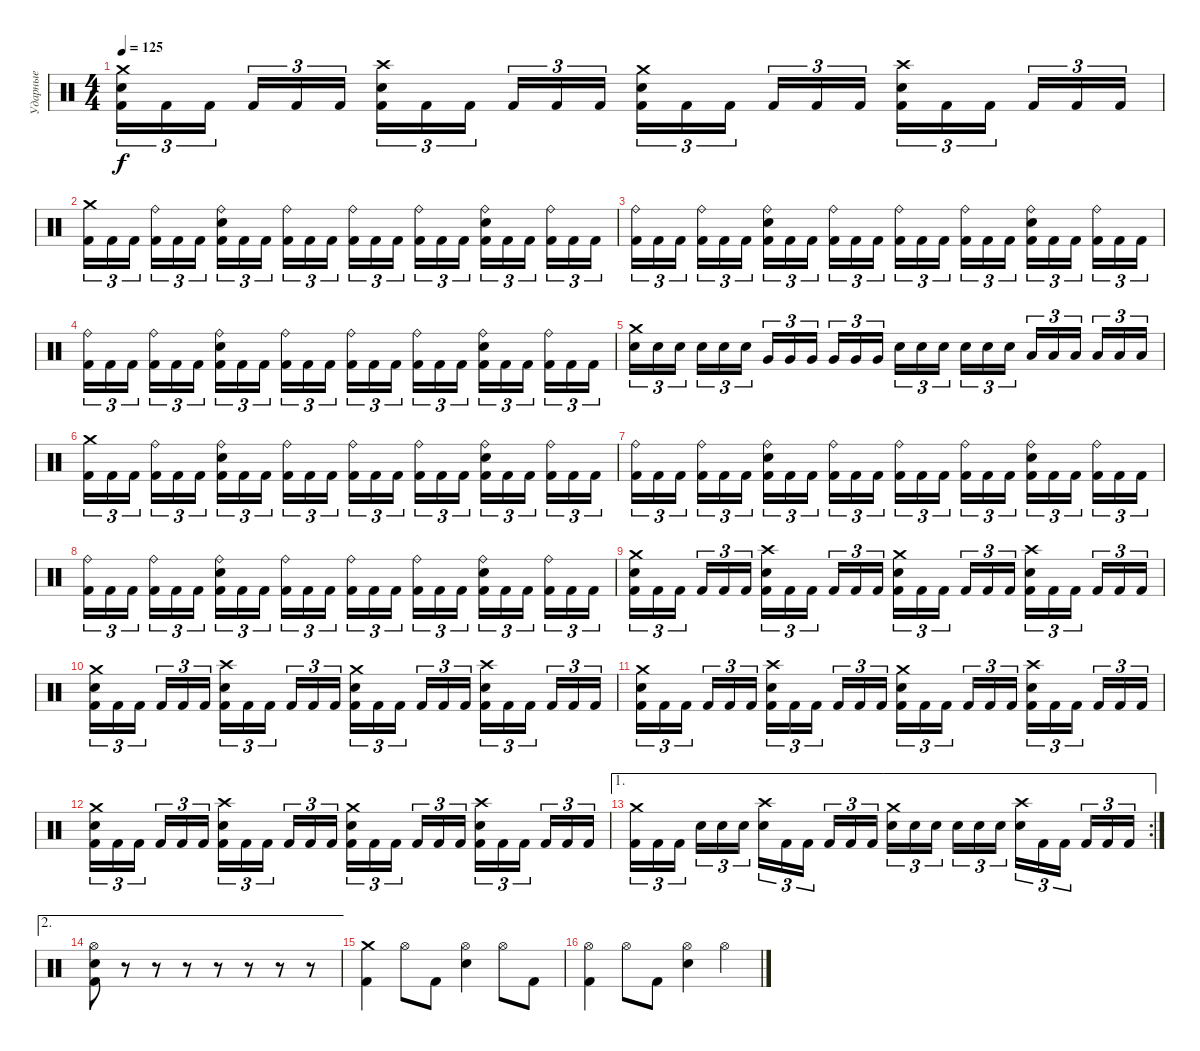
\track ("Ударные" "Ударные") {instrument percussion}
\staff {score}
\articulation defaults
\ts (4 4)
\tempo 125
\clef neutral
\ks c
("Crash medium (hit)" "Electric Snare (hit)" "Kick (hit) 2").16{tu (3 2) dy f} "Kick (hit) 2".16{tu (3 2)} "Kick (hit) 2".16{tu (3 2) beam splitsecondary} "Kick (hit) 2".16{tu (3 2)} "Kick (hit) 2".16{tu (3 2)} "Kick (hit) 2".16{tu (3 2)} ("Crash high (hit)" "Electric Snare (hit)" "Kick (hit) 2").16{tu (3 2)} "Kick (hit) 2".16{tu (3 2)} "Kick (hit) 2".16{tu (3 2) beam splitsecondary} "Kick (hit) 2".16{tu (3 2)} "Kick (hit) 2".16{tu (3 2)} "Kick (hit) 2".16{tu (3 2)} ("Crash medium (hit)" "Electric Snare (hit)" "Kick (hit) 2").16{tu (3 2)} "Kick (hit) 2".16{tu (3 2)} "Kick (hit) 2".16{tu (3 2) beam splitsecondary} "Kick (hit) 2".16{tu (3 2)} "Kick (hit) 2".16{tu (3 2)} "Kick (hit) 2".16{tu (3 2)} ("Crash high (hit)" "Electric Snare (hit)" "Kick (hit) 2").16{tu (3 2)} "Kick (hit) 2".16{tu (3 2)} "Kick (hit) 2".16{tu (3 2) beam splitsecondary} "Kick (hit) 2".16{tu (3 2)} "Kick (hit) 2".16{tu (3 2)} "Kick (hit) 2".16{tu (3 2)} |
("Crash medium (hit)" "Kick (hit) 2").16{tu (3 2)} "Kick (hit) 2".16{tu (3 2)} "Kick (hit) 2".16{tu (3 2) beam splitsecondary} ("Ride (bell)" "Kick (hit) 2").16{tu (3 2)} "Kick (hit) 2".16{tu (3 2)} "Kick (hit) 2".16{tu (3 2)} ("Ride (bell)" "Electric Snare (hit)" "Kick (hit) 2").16{tu (3 2)} "Kick (hit) 2".16{tu (3 2)} "Kick (hit) 2".16{tu (3 2) beam splitsecondary} ("Ride (bell)" "Kick (hit) 2").16{tu (3 2)} "Kick (hit) 2".16{tu (3 2)} "Kick (hit) 2".16{tu (3 2)} ("Ride (bell)" "Kick (hit) 2").16{tu (3 2)} "Kick (hit) 2".16{tu (3 2)} "Kick (hit) 2".16{tu (3 2) beam splitsecondary} ("Ride (bell)" "Kick (hit) 2").16{tu (3 2)} "Kick (hit) 2".16{tu (3 2)} "Kick (hit) 2".16{tu (3 2)} ("Ride (bell)" "Electric Snare (hit)" "Kick (hit) 2").16{tu (3 2)} "Kick (hit) 2".16{tu (3 2)} "Kick (hit) 2".16{tu (3 2) beam splitsecondary} ("Ride (bell)" "Kick (hit) 2").16{tu (3 2)} "Kick (hit) 2".16{tu (3 2)} "Kick (hit) 2".16{tu (3 2)} |
("Ride (bell)" "Kick (hit) 2").16{tu (3 2)} "Kick (hit) 2".16{tu (3 2)} "Kick (hit) 2".16{tu (3 2) beam splitsecondary} ("Ride (bell)" "Kick (hit) 2").16{tu (3 2)} "Kick (hit) 2".16{tu (3 2)} "Kick (hit) 2".16{tu (3 2)} ("Ride (bell)" "Electric Snare (hit)" "Kick (hit) 2").16{tu (3 2)} "Kick (hit) 2".16{tu (3 2)} "Kick (hit) 2".16{tu (3 2) beam splitsecondary} ("Ride (bell)" "Kick (hit) 2").16{tu (3 2)} "Kick (hit) 2".16{tu (3 2)} "Kick (hit) 2".16{tu (3 2)} ("Ride (bell)" "Kick (hit) 2").16{tu (3 2)} "Kick (hit) 2".16{tu (3 2)} "Kick (hit) 2".16{tu (3 2) beam splitsecondary} ("Ride (bell)" "Kick (hit) 2").16{tu (3 2)} "Kick (hit) 2".16{tu (3 2)} "Kick (hit) 2".16{tu (3 2)} ("Ride (bell)" "Electric Snare (hit)" "Kick (hit) 2").16{tu (3 2)} "Kick (hit) 2".16{tu (3 2)} "Kick (hit) 2".16{tu (3 2) beam splitsecondary} ("Ride (bell)" "Kick (hit) 2").16{tu (3 2)} "Kick (hit) 2".16{tu (3 2)} "Kick (hit) 2".16{tu (3 2)} |
("Ride (bell)" "Kick (hit) 2").16{tu (3 2)} "Kick (hit) 2".16{tu (3 2)} "Kick (hit) 2".16{tu (3 2) beam splitsecondary} ("Ride (bell)" "Kick (hit) 2").16{tu (3 2)} "Kick (hit) 2".16{tu (3 2)} "Kick (hit) 2".16{tu (3 2)} ("Ride (bell)" "Electric Snare (hit)" "Kick (hit) 2").16{tu (3 2)} "Kick (hit) 2".16{tu (3 2)} "Kick (hit) 2".16{tu (3 2) beam splitsecondary} ("Ride (bell)" "Kick (hit) 2").16{tu (3 2)} "Kick (hit) 2".16{tu (3 2)} "Kick (hit) 2".16{tu (3 2)} ("Ride (bell)" "Kick (hit) 2").16{tu (3 2)} "Kick (hit) 2".16{tu (3 2)} "Kick (hit) 2".16{tu (3 2) beam splitsecondary} ("Ride (bell)" "Kick (hit) 2").16{tu (3 2)} "Kick (hit) 2".16{tu (3 2)} "Kick (hit) 2".16{tu (3 2)} ("Ride (bell)" "Electric Snare (hit)" "Kick (hit) 2").16{tu (3 2)} "Kick (hit) 2".16{tu (3 2)} "Kick (hit) 2".16{tu (3 2) beam splitsecondary} ("Ride (bell)" "Kick (hit) 2").16{tu (3 2)} "Kick (hit) 2".16{tu (3 2)} "Kick (hit) 2".16{tu (3 2)} |
("Crash medium (hit)" "Electric Snare (hit)").16{tu (3 2)} "Electric Snare (hit)".16{tu (3 2)} "Electric Snare (hit)".16{tu (3 2) beam splitsecondary} "Electric Snare (hit)".16{tu (3 2)} "Electric Snare (hit)".16{tu (3 2)} "Electric Snare (hit)".16{tu (3 2)} "Very Low Tom (hit)".16{tu (3 2)} "Very Low Tom (hit)".16{tu (3 2)} "Very Low Tom (hit)".16{tu (3 2) beam splitsecondary} "Very Low Tom (hit)".16{tu (3 2)} "Very Low Tom (hit)".16{tu (3 2)} "Very Low Tom (hit)".16{tu (3 2)} "Electric Snare (hit)".16{tu (3 2)} "Electric Snare (hit)".16{tu (3 2)} "Electric Snare (hit)".16{tu (3 2) beam splitsecondary} "Electric Snare (hit)".16{tu (3 2)} "Electric Snare (hit)".16{tu (3 2)} "Electric Snare (hit)".16{tu (3 2)} "Low Floor Tom (hit)".16{tu (3 2)} "Low Floor Tom (hit)".16{tu (3 2)} "Low Floor Tom (hit)".16{tu (3 2) beam splitsecondary} "Low Floor Tom (hit)".16{tu (3 2)} "Low Floor Tom (hit)".16{tu (3 2)} "Low Floor Tom (hit)".16{tu (3 2)} |
("Crash medium (hit)" "Kick (hit) 2").16{tu (3 2)} "Kick (hit) 2".16{tu (3 2)} "Kick (hit) 2".16{tu (3 2) beam splitsecondary} ("Ride (bell)" "Kick (hit) 2").16{tu (3 2)} "Kick (hit) 2".16{tu (3 2)} "Kick (hit) 2".16{tu (3 2)} ("Ride (bell)" "Electric Snare (hit)" "Kick (hit) 2").16{tu (3 2)} "Kick (hit) 2".16{tu (3 2)} "Kick (hit) 2".16{tu (3 2) beam splitsecondary} ("Ride (bell)" "Kick (hit) 2").16{tu (3 2)} "Kick (hit) 2".16{tu (3 2)} "Kick (hit) 2".16{tu (3 2)} ("Ride (bell)" "Kick (hit) 2").16{tu (3 2)} "Kick (hit) 2".16{tu (3 2)} "Kick (hit) 2".16{tu (3 2) beam splitsecondary} ("Ride (bell)" "Kick (hit) 2").16{tu (3 2)} "Kick (hit) 2".16{tu (3 2)} "Kick (hit) 2".16{tu (3 2)} ("Ride (bell)" "Electric Snare (hit)" "Kick (hit) 2").16{tu (3 2)} "Kick (hit) 2".16{tu (3 2)} "Kick (hit) 2".16{tu (3 2) beam splitsecondary} ("Ride (bell)" "Kick (hit) 2").16{tu (3 2)} "Kick (hit) 2".16{tu (3 2)} "Kick (hit) 2".16{tu (3 2)} |
("Ride (bell)" "Kick (hit) 2").16{tu (3 2)} "Kick (hit) 2".16{tu (3 2)} "Kick (hit) 2".16{tu (3 2) beam splitsecondary} ("Ride (bell)" "Kick (hit) 2").16{tu (3 2)} "Kick (hit) 2".16{tu (3 2)} "Kick (hit) 2".16{tu (3 2)} ("Ride (bell)" "Electric Snare (hit)" "Kick (hit) 2").16{tu (3 2)} "Kick (hit) 2".16{tu (3 2)} "Kick (hit) 2".16{tu (3 2) beam splitsecondary} ("Ride (bell)" "Kick (hit) 2").16{tu (3 2)} "Kick (hit) 2".16{tu (3 2)} "Kick (hit) 2".16{tu (3 2)} ("Ride (bell)" "Kick (hit) 2").16{tu (3 2)} "Kick (hit) 2".16{tu (3 2)} "Kick (hit) 2".16{tu (3 2) beam splitsecondary} ("Ride (bell)" "Kick (hit) 2").16{tu (3 2)} "Kick (hit) 2".16{tu (3 2)} "Kick (hit) 2".16{tu (3 2)} ("Ride (bell)" "Electric Snare (hit)" "Kick (hit) 2").16{tu (3 2)} "Kick (hit) 2".16{tu (3 2)} "Kick (hit) 2".16{tu (3 2) beam splitsecondary} ("Ride (bell)" "Kick (hit) 2").16{tu (3 2)} "Kick (hit) 2".16{tu (3 2)} "Kick (hit) 2".16{tu (3 2)} |
("Ride (bell)" "Kick (hit) 2").16{tu (3 2)} "Kick (hit) 2".16{tu (3 2)} "Kick (hit) 2".16{tu (3 2) beam splitsecondary} ("Ride (bell)" "Kick (hit) 2").16{tu (3 2)} "Kick (hit) 2".16{tu (3 2)} "Kick (hit) 2".16{tu (3 2)} ("Ride (bell)" "Electric Snare (hit)" "Kick (hit) 2").16{tu (3 2)} "Kick (hit) 2".16{tu (3 2)} "Kick (hit) 2".16{tu (3 2) beam splitsecondary} ("Ride (bell)" "Kick (hit) 2").16{tu (3 2)} "Kick (hit) 2".16{tu (3 2)} "Kick (hit) 2".16{tu (3 2)} ("Ride (bell)" "Kick (hit) 2").16{tu (3 2)} "Kick (hit) 2".16{tu (3 2)} "Kick (hit) 2".16{tu (3 2) beam splitsecondary} ("Ride (bell)" "Kick (hit) 2").16{tu (3 2)} "Kick (hit) 2".16{tu (3 2)} "Kick (hit) 2".16{tu (3 2)} ("Ride (bell)" "Electric Snare (hit)" "Kick (hit) 2").16{tu (3 2)} "Kick (hit) 2".16{tu (3 2)} "Kick (hit) 2".16{tu (3 2) beam splitsecondary} ("Ride (bell)" "Kick (hit) 2").16{tu (3 2)} "Kick (hit) 2".16{tu (3 2)} "Kick (hit) 2".16{tu (3 2)} |
("Crash medium (hit)" "Electric Snare (hit)" "Kick (hit) 2").16{tu (3 2)} "Kick (hit) 2".16{tu (3 2)} "Kick (hit) 2".16{tu (3 2) beam splitsecondary} "Kick (hit) 2".16{tu (3 2)} "Kick (hit) 2".16{tu (3 2)} "Kick (hit) 2".16{tu (3 2)} ("Crash high (hit)" "Electric Snare (hit)" "Kick (hit) 2").16{tu (3 2)} "Kick (hit) 2".16{tu (3 2)} "Kick (hit) 2".16{tu (3 2) beam splitsecondary} "Kick (hit) 2".16{tu (3 2)} "Kick (hit) 2".16{tu (3 2)} "Kick (hit) 2".16{tu (3 2)} ("Crash medium (hit)" "Electric Snare (hit)" "Kick (hit) 2").16{tu (3 2)} "Kick (hit) 2".16{tu (3 2)} "Kick (hit) 2".16{tu (3 2) beam splitsecondary} "Kick (hit) 2".16{tu (3 2)} "Kick (hit) 2".16{tu (3 2)} "Kick (hit) 2".16{tu (3 2)} ("Crash high (hit)" "Electric Snare (hit)" "Kick (hit) 2").16{tu (3 2)} "Kick (hit) 2".16{tu (3 2)} "Kick (hit) 2".16{tu (3 2) beam splitsecondary} "Kick (hit) 2".16{tu (3 2)} "Kick (hit) 2".16{tu (3 2)} "Kick (hit) 2".16{tu (3 2)} |
("Crash medium (hit)" "Electric Snare (hit)" "Kick (hit) 2").16{tu (3 2)} "Kick (hit) 2".16{tu (3 2)} "Kick (hit) 2".16{tu (3 2) beam splitsecondary} "Kick (hit) 2".16{tu (3 2)} "Kick (hit) 2".16{tu (3 2)} "Kick (hit) 2".16{tu (3 2)} ("Crash high (hit)" "Electric Snare (hit)" "Kick (hit) 2").16{tu (3 2)} "Kick (hit) 2".16{tu (3 2)} "Kick (hit) 2".16{tu (3 2) beam splitsecondary} "Kick (hit) 2".16{tu (3 2)} "Kick (hit) 2".16{tu (3 2)} "Kick (hit) 2".16{tu (3 2)} ("Crash medium (hit)" "Electric Snare (hit)" "Kick (hit) 2").16{tu (3 2)} "Kick (hit) 2".16{tu (3 2)} "Kick (hit) 2".16{tu (3 2) beam splitsecondary} "Kick (hit) 2".16{tu (3 2)} "Kick (hit) 2".16{tu (3 2)} "Kick (hit) 2".16{tu (3 2)} ("Crash high (hit)" "Electric Snare (hit)" "Kick (hit) 2").16{tu (3 2)} "Kick (hit) 2".16{tu (3 2)} "Kick (hit) 2".16{tu (3 2) beam splitsecondary} "Kick (hit) 2".16{tu (3 2)} "Kick (hit) 2".16{tu (3 2)} "Kick (hit) 2".16{tu (3 2)} |
("Crash medium (hit)" "Electric Snare (hit)" "Kick (hit) 2").16{tu (3 2)} "Kick (hit) 2".16{tu (3 2)} "Kick (hit) 2".16{tu (3 2) beam splitsecondary} "Kick (hit) 2".16{tu (3 2)} "Kick (hit) 2".16{tu (3 2)} "Kick (hit) 2".16{tu (3 2)} ("Crash high (hit)" "Electric Snare (hit)" "Kick (hit) 2").16{tu (3 2)} "Kick (hit) 2".16{tu (3 2)} "Kick (hit) 2".16{tu (3 2) beam splitsecondary} "Kick (hit) 2".16{tu (3 2)} "Kick (hit) 2".16{tu (3 2)} "Kick (hit) 2".16{tu (3 2)} ("Crash medium (hit)" "Electric Snare (hit)" "Kick (hit) 2").16{tu (3 2)} "Kick (hit) 2".16{tu (3 2)} "Kick (hit) 2".16{tu (3 2) beam splitsecondary} "Kick (hit) 2".16{tu (3 2)} "Kick (hit) 2".16{tu (3 2)} "Kick (hit) 2".16{tu (3 2)} ("Crash high (hit)" "Electric Snare (hit)" "Kick (hit) 2").16{tu (3 2)} "Kick (hit) 2".16{tu (3 2)} "Kick (hit) 2".16{tu (3 2) beam splitsecondary} "Kick (hit) 2".16{tu (3 2)} "Kick (hit) 2".16{tu (3 2)} "Kick (hit) 2".16{tu (3 2)} |
("Crash medium (hit)" "Electric Snare (hit)" "Kick (hit) 2").16{tu (3 2)} "Kick (hit) 2".16{tu (3 2)} "Kick (hit) 2".16{tu (3 2) beam splitsecondary} "Kick (hit) 2".16{tu (3 2)} "Kick (hit) 2".16{tu (3 2)} "Kick (hit) 2".16{tu (3 2)} ("Crash high (hit)" "Electric Snare (hit)" "Kick (hit) 2").16{tu (3 2)} "Kick (hit) 2".16{tu (3 2)} "Kick (hit) 2".16{tu (3 2) beam splitsecondary} "Kick (hit) 2".16{tu (3 2)} "Kick (hit) 2".16{tu (3 2)} "Kick (hit) 2".16{tu (3 2)} ("Crash medium (hit)" "Electric Snare (hit)" "Kick (hit) 2").16{tu (3 2)} "Kick (hit) 2".16{tu (3 2)} "Kick (hit) 2".16{tu (3 2) beam splitsecondary} "Kick (hit) 2".16{tu (3 2)} "Kick (hit) 2".16{tu (3 2)} "Kick (hit) 2".16{tu (3 2)} ("Crash high (hit)" "Electric Snare (hit)" "Kick (hit) 2").16{tu (3 2)} "Kick (hit) 2".16{tu (3 2)} "Kick (hit) 2".16{tu (3 2) beam splitsecondary} "Kick (hit) 2".16{tu (3 2)} "Kick (hit) 2".16{tu (3 2)} "Kick (hit) 2".16{tu (3 2)} |
\ae 1
\rc 2
("Crash medium (hit)" "Kick (hit) 2").16{tu (3 2)} "Kick (hit) 2".16{tu (3 2)} "Kick (hit) 2".16{tu (3 2) beam splitsecondary} "Electric Snare (hit)".16{tu (3 2)} "Electric Snare (hit)".16{tu (3 2)} "Electric Snare (hit)".16{tu (3 2)} ("Crash high (hit)" "Electric Snare (hit)").16{tu (3 2)} "Kick (hit) 2".16{tu (3 2)} "Kick (hit) 2".16{tu (3 2) beam splitsecondary} "Kick (hit) 2".16{tu (3 2)} "Kick (hit) 2".16{tu (3 2)} "Kick (hit) 2".16{tu (3 2)} ("Crash medium (hit)" "Electric Snare (hit)").16{tu (3 2)} "Electric Snare (hit)".16{tu (3 2)} "Electric Snare (hit)".16{tu (3 2) beam splitsecondary} "Electric Snare (hit)".16{tu (3 2)} "Electric Snare (hit)".16{tu (3 2)} "Electric Snare (hit)".16{tu (3 2)} ("Crash high (hit)" "Electric Snare (hit)").16{tu (3 2)} "Kick (hit) 2".16{tu (3 2)} "Kick (hit) 2".16{tu (3 2) beam splitsecondary} "Kick (hit) 2".16{tu (3 2)} "Kick (hit) 2".16{tu (3 2)} "Kick (hit) 2".16{tu (3 2)} |
\ae 2
("Hi-Hat (open)" "Electric Snare (hit)" "Kick (hit) 2").8 r.8 r.8 r.8 r.8 r.8 r.8 r.8 |
("Crash medium (hit)" "Kick (hit) 2").4 "Hi-Hat (open)".8 "Kick (hit) 2".8 ("Hi-Hat (open)" "Electric Snare (hit)").4 "Hi-Hat (open)".8 "Kick (hit) 2".8 |
("Hi-Hat (open)" "Kick (hit) 2").4 "Hi-Hat (open)".8 "Kick (hit) 2".8 ("Hi-Hat (open)" "Electric Snare (hit)").4 "Hi-Hat (open)".4
